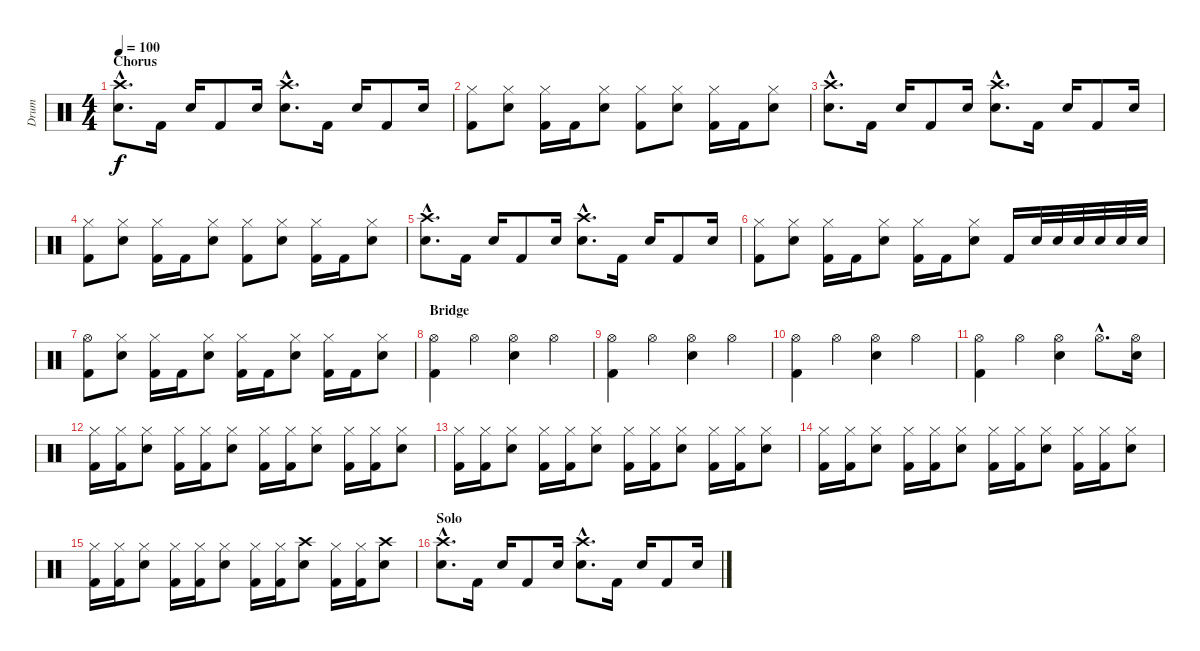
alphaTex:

\track ("Drum" "Drum") {instrument percussion}
\staff {score}
\articulation defaults
\ts (4 4)
\section ("" "Chorus")
\tempo 100
\clef neutral
\ks c
("Crash high (hit)"{hac} "Electric Snare (hit)"{hac}).8{d dy f} "Kick (hit) 2".16 "Electric Snare (hit)".16 "Kick (hit) 2".8 "Electric Snare (hit)".16 ("Crash high (hit)"{hac} "Electric Snare (hit)"{hac}).8{d} "Kick (hit) 2".16 "Electric Snare (hit)".16 "Kick (hit) 2".8 "Electric Snare (hit)".16 |
("Hi-Hat (closed)" "Kick (hit) 2").8 ("Hi-Hat (closed)" "Electric Snare (hit)").8 ("Hi-Hat (closed)" "Kick (hit) 2").16 "Kick (hit) 2".16 ("Hi-Hat (closed)" "Electric Snare (hit)").8 ("Hi-Hat (closed)" "Kick (hit) 2").8 ("Hi-Hat (closed)" "Electric Snare (hit)").8 ("Hi-Hat (closed)" "Kick (hit) 2").16 "Kick (hit) 2".16 ("Hi-Hat (closed)" "Electric Snare (hit)").8 |
("Crash high (hit)"{hac} "Electric Snare (hit)"{hac}).8{d} "Kick (hit) 2".16 "Electric Snare (hit)".16 "Kick (hit) 2".8 "Electric Snare (hit)".16 ("Crash high (hit)"{hac} "Electric Snare (hit)"{hac}).8{d} "Kick (hit) 2".16 "Electric Snare (hit)".16 "Kick (hit) 2".8 "Electric Snare (hit)".16 |
("Hi-Hat (closed)" "Kick (hit) 2").8 ("Hi-Hat (closed)" "Electric Snare (hit)").8 ("Hi-Hat (closed)" "Kick (hit) 2").16 "Kick (hit) 2".16 ("Hi-Hat (closed)" "Electric Snare (hit)").8 ("Hi-Hat (closed)" "Kick (hit) 2").8 ("Hi-Hat (closed)" "Electric Snare (hit)").8 ("Hi-Hat (closed)" "Kick (hit) 2").16 "Kick (hit) 2".16 ("Hi-Hat (closed)" "Electric Snare (hit)").8 |
("Crash high (hit)"{hac} "Electric Snare (hit)"{hac}).8{d} "Kick (hit) 2".16 "Electric Snare (hit)".16 "Kick (hit) 2".8 "Electric Snare (hit)".16 ("Crash high (hit)"{hac} "Electric Snare (hit)"{hac}).8{d} "Kick (hit) 2".16 "Electric Snare (hit)".16 "Kick (hit) 2".8 "Electric Snare (hit)".16 |
("Hi-Hat (closed)" "Kick (hit) 2").8 ("Hi-Hat (closed)" "Electric Snare (hit)").8 ("Hi-Hat (closed)" "Kick (hit) 2").16 "Kick (hit) 2".16 ("Hi-Hat (closed)" "Electric Snare (hit)").8 ("Hi-Hat (closed)" "Kick (hit) 2").16 "Kick (hit) 2".16 ("Hi-Hat (closed)" "Electric Snare (hit)").8 "Kick (hit) 2".16 "Electric Snare (hit)".32 "Electric Snare (hit)".32 "Electric Snare (hit)".32 "Electric Snare (hit)".32 "Electric Snare (hit)".32 "Electric Snare (hit)".32 |
("Hi-Hat (open)" "Kick (hit) 2").8 ("Hi-Hat (closed)" "Electric Snare (hit)").8 ("Hi-Hat (closed)" "Kick (hit) 2").16 "Kick (hit) 2".16 ("Hi-Hat (closed)" "Electric Snare (hit)").8 ("Hi-Hat (closed)" "Kick (hit) 2").16 "Kick (hit) 2".16 ("Hi-Hat (closed)" "Electric Snare (hit)").8 ("Hi-Hat (closed)" "Kick (hit) 2").16 "Kick (hit) 2".16 ("Hi-Hat (closed)" "Electric Snare (hit)").8 |
\section ("" "Bridge")
("Hi-Hat (open)" "Kick (hit) 2").4 "Hi-Hat (open)".4 ("Hi-Hat (open)" "Electric Snare (hit)").4 "Hi-Hat (open)".4 |
("Hi-Hat (open)" "Kick (hit) 2").4 "Hi-Hat (open)".4 ("Hi-Hat (open)" "Electric Snare (hit)").4 "Hi-Hat (open)".4 |
("Hi-Hat (open)" "Kick (hit) 2").4 "Hi-Hat (open)".4 ("Hi-Hat (open)" "Electric Snare (hit)").4 "Hi-Hat (open)".4 |
("Hi-Hat (open)" "Kick (hit) 2").4 "Hi-Hat (open)".4 ("Hi-Hat (open)" "Electric Snare (hit)").4 "Hi-Hat (open)"{hac}.8{d} ("Hi-Hat (open)" "Electric Snare (hit)").16 |
("Hi-Hat (closed)" "Kick (hit) 2").16 ("Hi-Hat (closed)" "Kick (hit) 2").16 ("Hi-Hat (closed)" "Electric Snare (hit)").8 ("Hi-Hat (closed)" "Kick (hit) 2").16 ("Hi-Hat (closed)" "Kick (hit) 2").16 ("Hi-Hat (closed)" "Electric Snare (hit)").8 ("Hi-Hat (closed)" "Kick (hit) 2").16 ("Hi-Hat (closed)" "Kick (hit) 2").16 ("Hi-Hat (closed)" "Electric Snare (hit)").8 ("Hi-Hat (closed)" "Kick (hit) 2").16 ("Hi-Hat (closed)" "Kick (hit) 2").16 ("Hi-Hat (closed)" "Electric Snare (hit)").8 |
("Hi-Hat (closed)" "Kick (hit) 2").16 ("Hi-Hat (closed)" "Kick (hit) 2").16 ("Hi-Hat (closed)" "Electric Snare (hit)").8 ("Hi-Hat (closed)" "Kick (hit) 2").16 ("Hi-Hat (closed)" "Kick (hit) 2").16 ("Hi-Hat (closed)" "Electric Snare (hit)").8 ("Hi-Hat (closed)" "Kick (hit) 2").16 ("Hi-Hat (closed)" "Kick (hit) 2").16 ("Hi-Hat (closed)" "Electric Snare (hit)").8 ("Hi-Hat (closed)" "Kick (hit) 2").16 ("Hi-Hat (closed)" "Kick (hit) 2").16 ("Hi-Hat (closed)" "Electric Snare (hit)").8 |
("Hi-Hat (closed)" "Kick (hit) 2").16 ("Hi-Hat (closed)" "Kick (hit) 2").16 ("Hi-Hat (closed)" "Electric Snare (hit)").8 ("Hi-Hat (closed)" "Kick (hit) 2").16 ("Hi-Hat (closed)" "Kick (hit) 2").16 ("Hi-Hat (closed)" "Electric Snare (hit)").8 ("Hi-Hat (closed)" "Kick (hit) 2").16 ("Hi-Hat (closed)" "Kick (hit) 2").16 ("Hi-Hat (closed)" "Electric Snare (hit)").8 ("Hi-Hat (closed)" "Kick (hit) 2").16 ("Hi-Hat (closed)" "Kick (hit) 2").16 ("Hi-Hat (closed)" "Electric Snare (hit)").8 |
("Hi-Hat (closed)" "Kick (hit) 2").16 ("Hi-Hat (closed)" "Kick (hit) 2").16 ("Hi-Hat (closed)" "Electric Snare (hit)").8 ("Hi-Hat (closed)" "Kick (hit) 2").16 ("Hi-Hat (closed)" "Kick (hit) 2").16 ("Hi-Hat (closed)" "Electric Snare (hit)").8 ("Hi-Hat (closed)" "Kick (hit) 2").16 ("Hi-Hat (closed)" "Kick (hit) 2").16 ("Crash high (hit)" "Electric Snare (hit)").8 ("Hi-Hat (closed)" "Kick (hit) 2").16 ("Hi-Hat (closed)" "Kick (hit) 2").16 ("Crash high (hit)" "Electric Snare (hit)").8 |
\section ("" "Solo")
("Crash high (hit)"{hac} "Electric Snare (hit)"{hac}).8{d} "Kick (hit) 2".16 "Electric Snare (hit)".16 "Kick (hit) 2".8 "Electric Snare (hit)".16 ("Crash high (hit)"{hac} "Electric Snare (hit)"{hac}).8{d} "Kick (hit) 2".16 "Electric Snare (hit)".16 "Kick (hit) 2".8 "Electric Snare (hit)".16
